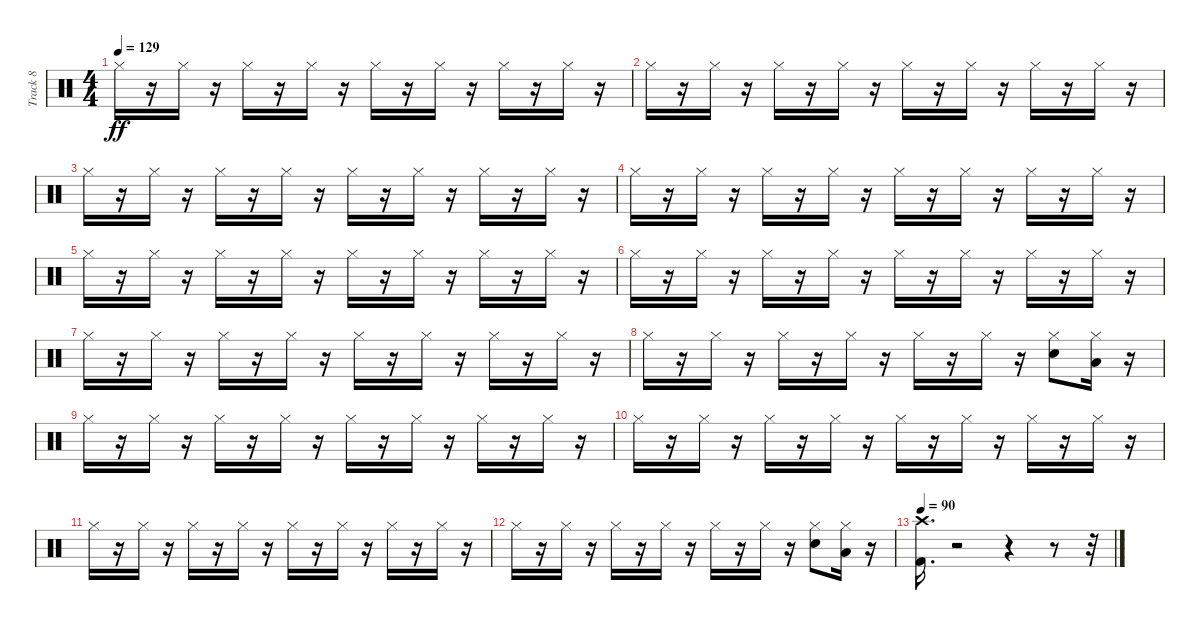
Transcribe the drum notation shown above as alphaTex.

\track ("Track 8" "Track 8") {instrument percussion}
\staff {score}
\articulation defaults
\ts (4 4)
\tempo 129
\clef neutral
\ks c "Hi-Hat (closed)".16{dy ff}
r.16 "Hi-Hat (closed)".16 r.16 "Hi-Hat (closed)".16 r.16 "Hi-Hat (closed)".16 r.16 "Hi-Hat (closed)".16 r.16 "Hi-Hat (closed)".16 r.16 "Hi-Hat (closed)".16 r.16 "Hi-Hat (closed)".16 r.16 |
"Hi-Hat (closed)".16 r.16 "Hi-Hat (closed)".16 r.16 "Hi-Hat (closed)".16 r.16 "Hi-Hat (closed)".16 r.16 "Hi-Hat (closed)".16 r.16 "Hi-Hat (closed)".16 r.16 "Hi-Hat (closed)".16 r.16 "Hi-Hat (closed)".16 r.16 |
"Hi-Hat (closed)".16 r.16 "Hi-Hat (closed)".16 r.16 "Hi-Hat (closed)".16 r.16 "Hi-Hat (closed)".16 r.16 "Hi-Hat (closed)".16 r.16 "Hi-Hat (closed)".16 r.16 "Hi-Hat (closed)".16 r.16 "Hi-Hat (closed)".16 r.16 |
"Hi-Hat (closed)".16 r.16 "Hi-Hat (closed)".16 r.16 "Hi-Hat (closed)".16 r.16 "Hi-Hat (closed)".16 r.16 "Hi-Hat (closed)".16 r.16 "Hi-Hat (closed)".16 r.16 "Hi-Hat (closed)".16 r.16 "Hi-Hat (closed)".16 r.16 |
"Hi-Hat (closed)".16 r.16 "Hi-Hat (closed)".16 r.16 "Hi-Hat (closed)".16 r.16 "Hi-Hat (closed)".16 r.16 "Hi-Hat (closed)".16 r.16 "Hi-Hat (closed)".16 r.16 "Hi-Hat (closed)".16 r.16 "Hi-Hat (closed)".16 r.16 |
"Hi-Hat (closed)".16 r.16 "Hi-Hat (closed)".16 r.16 "Hi-Hat (closed)".16 r.16 "Hi-Hat (closed)".16 r.16 "Hi-Hat (closed)".16 r.16 "Hi-Hat (closed)".16 r.16 "Hi-Hat (closed)".16 r.16 "Hi-Hat (closed)".16 r.16 |
"Hi-Hat (closed)".16 r.16 "Hi-Hat (closed)".16 r.16 "Hi-Hat (closed)".16 r.16 "Hi-Hat (closed)".16 r.16 "Hi-Hat (closed)".16 r.16 "Hi-Hat (closed)".16 r.16 "Hi-Hat (closed)".16 r.16 "Hi-Hat (closed)".16 r.16 |
"Hi-Hat (closed)".16 r.16 "Hi-Hat (closed)".16 r.16 "Hi-Hat (closed)".16 r.16 "Hi-Hat (closed)".16 r.16 "Hi-Hat (closed)".16 r.16 "Hi-Hat (closed)".16 r.16 ("Hi-Hat (closed)" "Snare (hit) 2").8 ("Hi-Hat (closed)" "Low Floor Tom (hit)").16 r.16 |
"Hi-Hat (closed)".16 r.16 "Hi-Hat (closed)".16 r.16 "Hi-Hat (closed)".16 r.16 "Hi-Hat (closed)".16 r.16 "Hi-Hat (closed)".16 r.16 "Hi-Hat (closed)".16 r.16 "Hi-Hat (closed)".16 r.16 "Hi-Hat (closed)".16 r.16 |
"Hi-Hat (closed)".16 r.16 "Hi-Hat (closed)".16 r.16 "Hi-Hat (closed)".16 r.16 "Hi-Hat (closed)".16 r.16 "Hi-Hat (closed)".16 r.16 "Hi-Hat (closed)".16 r.16 "Hi-Hat (closed)".16 r.16 "Hi-Hat (closed)".16 r.16 |
"Hi-Hat (closed)".16 r.16 "Hi-Hat (closed)".16 r.16 "Hi-Hat (closed)".16 r.16 "Hi-Hat (closed)".16 r.16 "Hi-Hat (closed)".16 r.16 "Hi-Hat (closed)".16 r.16 "Hi-Hat (closed)".16 r.16 "Hi-Hat (closed)".16 r.16 |
"Hi-Hat (closed)".16 r.16 "Hi-Hat (closed)".16 r.16 "Hi-Hat (closed)".16 r.16 "Hi-Hat (closed)".16 r.16 "Hi-Hat (closed)".16 r.16 "Hi-Hat (closed)".16 r.16 ("Hi-Hat (closed)" "Snare (hit) 2").8 ("Hi-Hat (closed)" "Low Floor Tom (hit)").16 r.16 |
\tempo 90
("Kick (hit) 2" "Crash high (hit)").16{d} r.2 r.4 r.8 r.32
